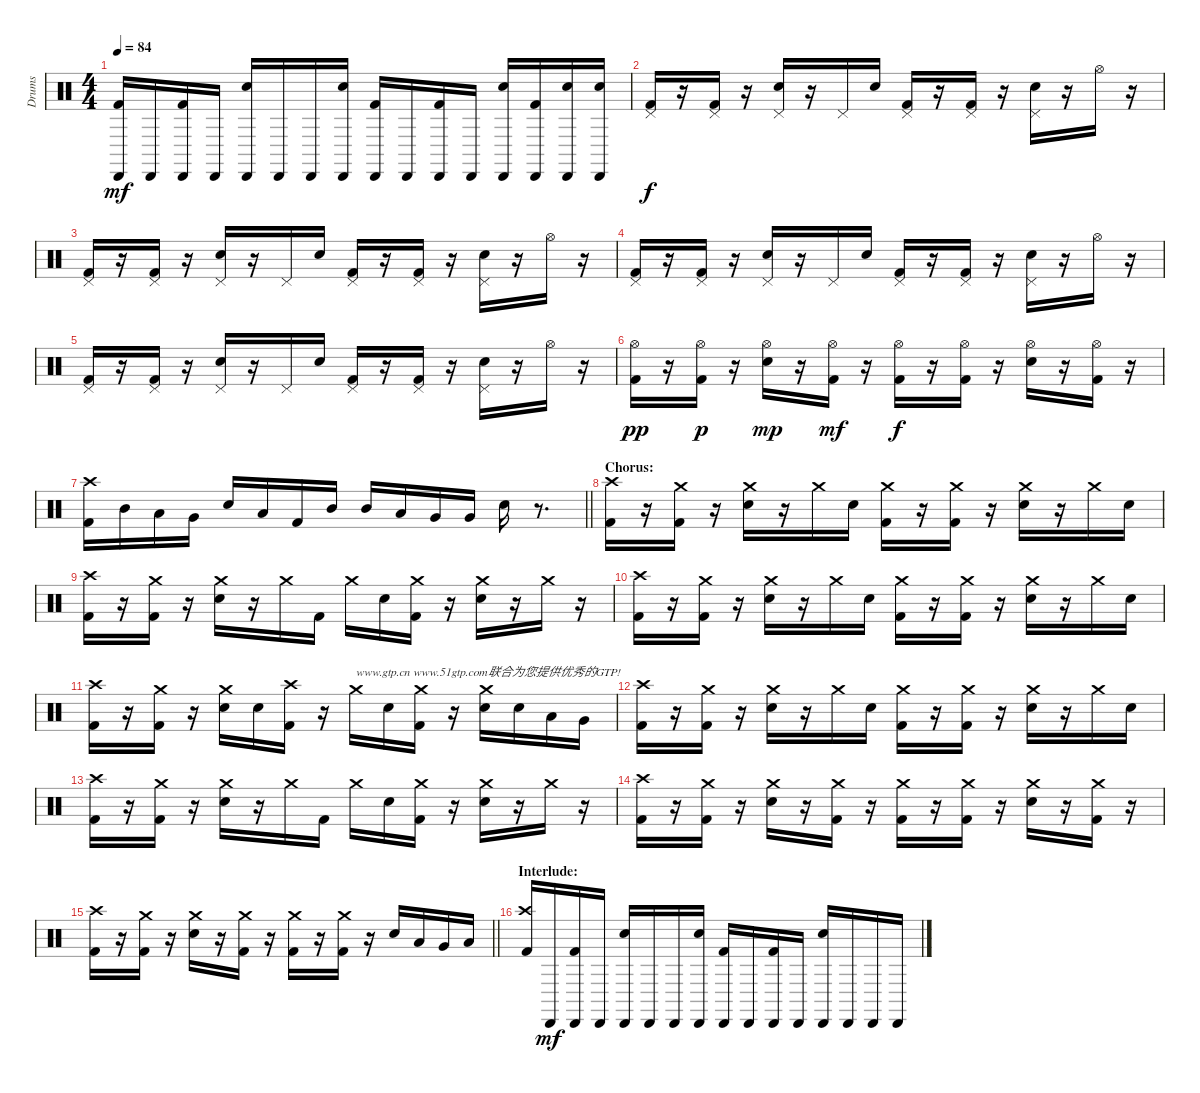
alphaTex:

\track ("Drums" "Drums") {instrument percussion}
\staff {score}
\articulation defaults
\ts (4 4)
\tempo 84
\clef neutral
\ks c
("Cabasa (hit)" "Kick (hit) 2").16{dy mf} "Cabasa (hit)".16 ("Cabasa (hit)" "Kick (hit) 2").16 "Cabasa (hit)".16 ("Cabasa (hit)" "Electric Snare (hit)").16 "Cabasa (hit)".16 "Cabasa (hit)".16 ("Cabasa (hit)" "Electric Snare (hit)").16 ("Cabasa (hit)" "Kick (hit) 2").16 "Cabasa (hit)".16 ("Cabasa (hit)" "Kick (hit) 2").16 "Cabasa (hit)".16 ("Cabasa (hit)" "Electric Snare (hit)").16 ("Cabasa (hit)" "Kick (hit) 2").16 ("Cabasa (hit)" "Electric Snare (hit)").16 ("Cabasa (hit)" "Electric Snare (hit)").16 |
("Pedal Hi-Hat (hit)" "Kick (hit) 2").16{dy f} r.16 ("Pedal Hi-Hat (hit)" "Kick (hit) 2").16 r.16 ("Pedal Hi-Hat (hit)" "Electric Snare (hit)").16 r.16 "Pedal Hi-Hat (hit)".16 "Electric Snare (hit)".16 ("Pedal Hi-Hat (hit)" "Kick (hit) 2").16 r.16 ("Pedal Hi-Hat (hit)" "Kick (hit) 2").16 r.16 ("Pedal Hi-Hat (hit)" "Electric Snare (hit)").16 r.16 "Hi-Hat (open)".16 r.16 |
("Pedal Hi-Hat (hit)" "Kick (hit) 2").16 r.16 ("Pedal Hi-Hat (hit)" "Kick (hit) 2").16 r.16 ("Pedal Hi-Hat (hit)" "Electric Snare (hit)").16 r.16 "Pedal Hi-Hat (hit)".16 "Electric Snare (hit)".16 ("Pedal Hi-Hat (hit)" "Kick (hit) 2").16 r.16 ("Pedal Hi-Hat (hit)" "Kick (hit) 2").16 r.16 ("Pedal Hi-Hat (hit)" "Electric Snare (hit)").16 r.16 "Hi-Hat (open)".16 r.16 |
("Pedal Hi-Hat (hit)" "Kick (hit) 2").16 r.16 ("Pedal Hi-Hat (hit)" "Kick (hit) 2").16 r.16 ("Pedal Hi-Hat (hit)" "Electric Snare (hit)").16 r.16 "Pedal Hi-Hat (hit)".16 "Electric Snare (hit)".16 ("Pedal Hi-Hat (hit)" "Kick (hit) 2").16 r.16 ("Pedal Hi-Hat (hit)" "Kick (hit) 2").16 r.16 ("Pedal Hi-Hat (hit)" "Electric Snare (hit)").16 r.16 "Hi-Hat (open)".16 r.16 |
("Pedal Hi-Hat (hit)" "Kick (hit) 2").16 r.16 ("Pedal Hi-Hat (hit)" "Kick (hit) 2").16 r.16 ("Pedal Hi-Hat (hit)" "Electric Snare (hit)").16 r.16 "Pedal Hi-Hat (hit)".16 "Electric Snare (hit)".16 ("Pedal Hi-Hat (hit)" "Kick (hit) 2").16 r.16 ("Pedal Hi-Hat (hit)" "Kick (hit) 2").16 r.16 ("Pedal Hi-Hat (hit)" "Electric Snare (hit)").16 r.16 "Hi-Hat (open)".16 r.16 |
("Hi-Hat (open)" "Kick (hit) 2").16{dy pp} r.16 ("Hi-Hat (open)" "Kick (hit) 2").16{dy p} r.16 ("Hi-Hat (open)" "Electric Snare (hit)").16{dy mp} r.16 ("Hi-Hat (open)" "Kick (hit) 2").16{dy mf} r.16 ("Hi-Hat (open)" "Kick (hit) 2").16{dy f} r.16 ("Hi-Hat (open)" "Kick (hit) 2").16 r.16 ("Hi-Hat (open)" "Electric Snare (hit)").16 r.16 ("Hi-Hat (open)" "Kick (hit) 2").16 r.16 |
\barLineRight lightlight
("Crash high (hit)" "Kick (hit) 2").16 "Mid Tom (hit)".16 "Low Tom (hit)".16 "Very Low Tom (hit)".16 "Electric Snare (hit)".16 "Low Tom (hit)".16 "Kick (hit) 2".16 "Mid Tom (hit)".16 "Mid Tom (hit)".16 "Low Tom (hit)".16 "Very Low Tom (hit)".16 "Very Low Tom (hit)".16 "Electric Snare (hit)".16 r.8{d} |
\section ("" "Chorus:")
("Crash high (hit)" "Kick (hit) 2").16 r.16 ("Crash medium (hit)" "Kick (hit) 2").16 r.16 ("Crash medium (hit)" "Electric Snare (hit)").16 r.16 "Crash medium (hit)".16 "Electric Snare (hit)".16 ("Crash medium (hit)" "Kick (hit) 2").16 r.16 ("Crash medium (hit)" "Kick (hit) 2").16 r.16 ("Crash medium (hit)" "Electric Snare (hit)").16 r.16 "Crash medium (hit)".16 "Electric Snare (hit)".16 |
("Crash high (hit)" "Kick (hit) 2").16 r.16 ("Crash medium (hit)" "Kick (hit) 2").16 r.16 ("Crash medium (hit)" "Electric Snare (hit)").16 r.16 "Crash medium (hit)".16 "Kick (hit) 2".16 "Crash medium (hit)".16 "Electric Snare (hit)".16 ("Crash medium (hit)" "Kick (hit) 2").16 r.16 ("Crash medium (hit)" "Electric Snare (hit)").16 r.16 "Crash medium (hit)".16 r.16 |
("Crash high (hit)" "Kick (hit) 2").16 r.16 ("Crash medium (hit)" "Kick (hit) 2").16 r.16 ("Crash medium (hit)" "Electric Snare (hit)").16 r.16 "Crash medium (hit)".16 "Electric Snare (hit)".16 ("Crash medium (hit)" "Kick (hit) 2").16 r.16 ("Crash medium (hit)" "Kick (hit) 2").16 r.16 ("Crash medium (hit)" "Electric Snare (hit)").16 r.16 "Crash medium (hit)".16 "Electric Snare (hit)".16 |
("Crash high (hit)" "Kick (hit) 2").16 r.16 ("Crash medium (hit)" "Kick (hit) 2").16 r.16 ("Crash medium (hit)" "Electric Snare (hit)").16 "Electric Snare (hit)".16 ("Crash high (hit)" "Kick (hit) 2").16 r.16 "Crash medium (hit)".16{txt "www.gtp.cn www.51gtp.com联合为您提供优秀的GTP!"} "Electric Snare (hit)".16 ("Crash medium (hit)" "Kick (hit) 2").16 r.16 ("Crash medium (hit)" "Electric Snare (hit)").16 "Electric Snare (hit)".16 "Low Tom (hit)".16 "Very Low Tom (hit)".16 |
("Crash high (hit)" "Kick (hit) 2").16 r.16 ("Crash medium (hit)" "Kick (hit) 2").16 r.16 ("Crash medium (hit)" "Electric Snare (hit)").16 r.16 "Crash medium (hit)".16 "Electric Snare (hit)".16 ("Crash medium (hit)" "Kick (hit) 2").16 r.16 ("Crash medium (hit)" "Kick (hit) 2").16 r.16 ("Crash medium (hit)" "Electric Snare (hit)").16 r.16 "Crash medium (hit)".16 "Electric Snare (hit)".16 |
("Crash high (hit)" "Kick (hit) 2").16 r.16 ("Crash medium (hit)" "Kick (hit) 2").16 r.16 ("Crash medium (hit)" "Electric Snare (hit)").16 r.16 "Crash medium (hit)".16 "Kick (hit) 2".16 "Crash medium (hit)".16 "Electric Snare (hit)".16 ("Crash medium (hit)" "Kick (hit) 2").16 r.16 ("Crash medium (hit)" "Electric Snare (hit)").16 r.16 "Crash medium (hit)".16 r.16 |
("Crash high (hit)" "Kick (hit) 2").16 r.16 ("Crash medium (hit)" "Kick (hit) 2").16 r.16 ("Crash medium (hit)" "Electric Snare (hit)").16 r.16 ("Crash medium (hit)" "Kick (hit) 2").16 r.16 ("Crash medium (hit)" "Kick (hit) 2").16 r.16 ("Crash medium (hit)" "Kick (hit) 2").16 r.16 ("Crash medium (hit)" "Electric Snare (hit)").16 r.16 ("Crash medium (hit)" "Kick (hit) 2").16 r.16 |
\barLineRight lightlight
("Crash high (hit)" "Kick (hit) 2").16 r.16 ("Crash medium (hit)" "Kick (hit) 2").16 r.16 ("Crash medium (hit)" "Electric Snare (hit)").16 r.16 ("Crash medium (hit)" "Kick (hit) 2").16 r.16 ("Crash medium (hit)" "Kick (hit) 2").16 r.16 ("Crash medium (hit)" "Kick (hit) 2").16 r.16 "Electric Snare (hit)".16 "Low Tom (hit)".16 "Very Low Tom (hit)".16 "Low Floor Tom (hit)".16 |
\section ("" "Interlude:")
("Crash high (hit)" "Kick (hit) 2").16 "Cabasa (hit)".16{dy mf} ("Cabasa (hit)" "Kick (hit) 2").16 "Cabasa (hit)".16 ("Cabasa (hit)" "Electric Snare (hit)").16 "Cabasa (hit)".16 "Cabasa (hit)".16 ("Cabasa (hit)" "Electric Snare (hit)").16 ("Cabasa (hit)" "Kick (hit) 2").16 "Cabasa (hit)".16 ("Cabasa (hit)" "Kick (hit) 2").16 "Cabasa (hit)".16 ("Cabasa (hit)" "Electric Snare (hit)").16 "Cabasa (hit)".16 "Cabasa (hit)".16 "Cabasa (hit)".16
